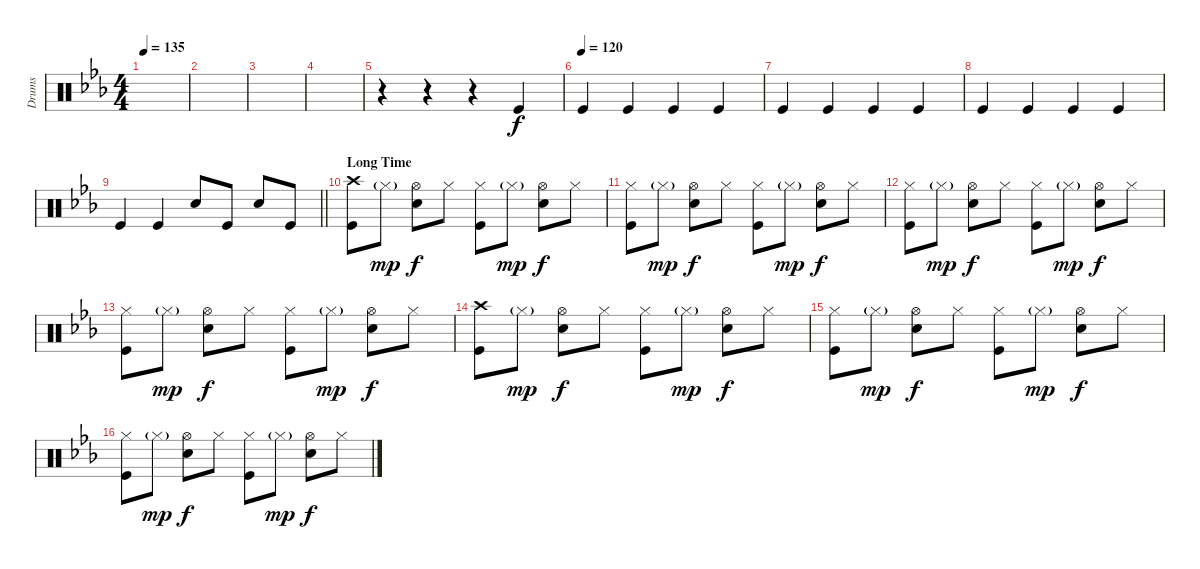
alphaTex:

\track ("Drums" "Drums") {instrument percussion}
\staff {score}
\articulation defaults
\ts (4 4)
\tempo 135
\clef neutral
\ks eb
|
|
|
|
r.4 r.4 r.4 "Kick (hit)".4{volume 0} |
\tempo (120)
"Kick (hit)".4{volume 13} "Kick (hit)".4 "Kick (hit)".4 "Kick (hit)".4 |
"Kick (hit)".4 "Kick (hit)".4 "Kick (hit)".4 "Kick (hit)".4 |
"Kick (hit)".4 "Kick (hit)".4 "Kick (hit)".4 "Kick (hit)".4 |
\barLineRight lightlight "Kick (hit)".4 "Kick (hit)".4 "Electric Snare (hit)".8 "Kick (hit)".8 "Electric Snare (hit)".8 "Kick (hit)".8
|
\section ("" "Long Time")
("Crash high (hit)" "Kick (hit)").8 "Hi-Hat (closed)"{g}.8{dy mp} ("Hi-Hat (open)" "Electric Snare (hit)").8{dy f} "Hi-Hat (closed)".8 ("Hi-Hat (closed)" "Kick (hit)").8 "Hi-Hat (closed)"{g}.8{dy mp} ("Hi-Hat (open)" "Electric Snare (hit)").8{dy f} "Hi-Hat (closed)".8 |
("Hi-Hat (closed)" "Kick (hit)").8 "Hi-Hat (closed)"{g}.8{dy mp} ("Hi-Hat (open)" "Electric Snare (hit)").8{dy f} "Hi-Hat (closed)".8 ("Hi-Hat (closed)" "Kick (hit)").8 "Hi-Hat (closed)"{g}.8{dy mp} ("Hi-Hat (open)" "Electric Snare (hit)").8{dy f} "Hi-Hat (closed)".8 |
("Hi-Hat (closed)" "Kick (hit)").8 "Hi-Hat (closed)"{g}.8{dy mp} ("Hi-Hat (open)" "Electric Snare (hit)").8{dy f} "Hi-Hat (closed)".8 ("Hi-Hat (closed)" "Kick (hit)").8 "Hi-Hat (closed)"{g}.8{dy mp} ("Hi-Hat (open)" "Electric Snare (hit)").8{dy f} "Hi-Hat (closed)".8 |
("Hi-Hat (closed)" "Kick (hit)").8 "Hi-Hat (closed)"{g}.8{dy mp} ("Hi-Hat (open)" "Electric Snare (hit)").8{dy f} "Hi-Hat (closed)".8 ("Hi-Hat (closed)" "Kick (hit)").8 "Hi-Hat (closed)"{g}.8{dy mp} ("Hi-Hat (open)" "Electric Snare (hit)").8{dy f} "Hi-Hat (closed)".8 |
("Crash high (hit)" "Kick (hit)").8 "Hi-Hat (closed)"{g}.8{dy mp} ("Hi-Hat (open)" "Electric Snare (hit)").8{dy f} "Hi-Hat (closed)".8 ("Hi-Hat (closed)" "Kick (hit)").8 "Hi-Hat (closed)"{g}.8{dy mp} ("Hi-Hat (open)" "Electric Snare (hit)").8{dy f} "Hi-Hat (closed)".8 |
("Hi-Hat (closed)" "Kick (hit)").8 "Hi-Hat (closed)"{g}.8{dy mp} ("Hi-Hat (open)" "Electric Snare (hit)").8{dy f} "Hi-Hat (closed)".8 ("Hi-Hat (closed)" "Kick (hit)").8 "Hi-Hat (closed)"{g}.8{dy mp} ("Hi-Hat (open)" "Electric Snare (hit)").8{dy f} "Hi-Hat (closed)".8 |
("Hi-Hat (closed)" "Kick (hit)").8 "Hi-Hat (closed)"{g}.8{dy mp} ("Hi-Hat (open)" "Electric Snare (hit)").8{dy f} "Hi-Hat (closed)".8 ("Hi-Hat (closed)" "Kick (hit)").8 "Hi-Hat (closed)"{g}.8{dy mp} ("Hi-Hat (open)" "Electric Snare (hit)").8{dy f} "Hi-Hat (closed)".8
